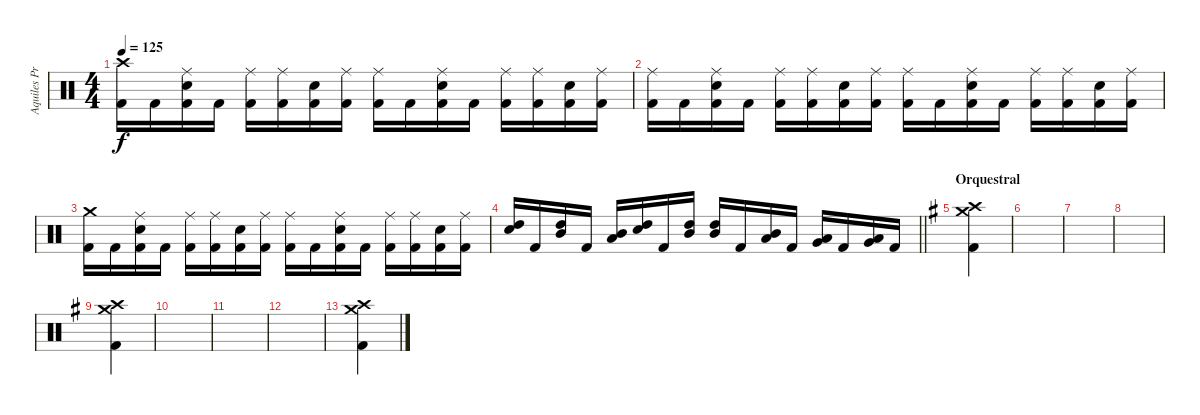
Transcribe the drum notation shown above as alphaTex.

\track ("Aquiles Priester" "Aquiles Pr") {instrument percussion}
\staff {score}
\articulation defaults
\ts (4 4)
\tempo 125
\clef neutral
\ks c
("Crash high (hit)" "Kick (hit) 2").16{dy f} "Kick (hit) 2".16 ("Ride (middle)" "Electric Snare (hit)" "Kick (hit) 2").16 "Kick (hit) 2".16 ("Ride (middle)" "Kick (hit) 2").16 ("Ride (middle)" "Kick (hit) 2").16 ("Electric Snare (hit)" "Kick (hit) 2").16 ("Ride (middle)" "Kick (hit) 2").16 ("Ride (middle)" "Kick (hit) 2").16 "Kick (hit) 2".16 ("Ride (middle)" "Electric Snare (hit)" "Kick (hit) 2").16 "Kick (hit) 2".16 ("Ride (middle)" "Kick (hit) 2").16 ("Ride (middle)" "Kick (hit) 2").16 ("Electric Snare (hit)" "Kick (hit) 2").16 ("Ride (middle)" "Kick (hit) 2").16 |
("Ride (middle)" "Kick (hit) 2").16 "Kick (hit) 2".16 ("Ride (middle)" "Electric Snare (hit)" "Kick (hit) 2").16 "Kick (hit) 2".16 ("Ride (middle)" "Kick (hit) 2").16 ("Ride (middle)" "Kick (hit) 2").16 ("Electric Snare (hit)" "Kick (hit) 2").16 ("Ride (middle)" "Kick (hit) 2").16 ("Ride (middle)" "Kick (hit) 2").16 "Kick (hit) 2".16 ("Ride (middle)" "Electric Snare (hit)" "Kick (hit) 2").16 "Kick (hit) 2".16 ("Ride (middle)" "Kick (hit) 2").16 ("Ride (middle)" "Kick (hit) 2").16 ("Electric Snare (hit)" "Kick (hit) 2").16 ("Ride (middle)" "Kick (hit) 2").16 |
("Crash medium (hit)" "Kick (hit) 2").16 "Kick (hit) 2".16 ("Ride (middle)" "Electric Snare (hit)" "Kick (hit) 2").16 "Kick (hit) 2".16 ("Ride (middle)" "Kick (hit) 2").16 ("Ride (middle)" "Kick (hit) 2").16 ("Electric Snare (hit)" "Kick (hit) 2").16 ("Ride (middle)" "Kick (hit) 2").16 ("Ride (middle)" "Kick (hit) 2").16 "Kick (hit) 2".16 ("Ride (middle)" "Electric Snare (hit)" "Kick (hit) 2").16 "Kick (hit) 2".16 ("Ride (middle)" "Kick (hit) 2").16 ("Ride (middle)" "Kick (hit) 2").16 ("Electric Snare (hit)" "Kick (hit) 2").16 ("Ride (middle)" "Kick (hit) 2").16 |
\barLineRight lightlight
("High Tom (hit)" "Electric Snare (hit)").16 "Kick (hit) 2".16 ("High Tom (hit)" "Mid Tom (hit)").16 "Kick (hit) 2".16 ("Mid Tom (hit)" "Low Tom (hit)").16 ("High Tom (hit)" "Electric Snare (hit)").16 "Kick (hit) 2".16 ("High Tom (hit)" "Mid Tom (hit)").16 ("High Tom (hit)" "Mid Tom (hit)").16 "Kick (hit) 2".16 ("Mid Tom (hit)" "Low Tom (hit)").16 "Kick (hit) 2".16 ("Low Tom (hit)" "Very Low Tom (hit)").16 "Kick (hit) 2".16 ("Very Low Tom (hit)" "Low Floor Tom (hit)").16 "Kick (hit) 2".16 |
\section ("" "Orquestral")
\ks eminor
("Crash high (hit)" "Crash medium (hit)" "Kick (hit) 2").4 |
|
|
|
("Crash high (hit)" "Crash medium (hit)" "Kick (hit) 2").4 |
|
|
|
("Crash high (hit)" "Crash medium (hit)" "Kick (hit) 2").4
